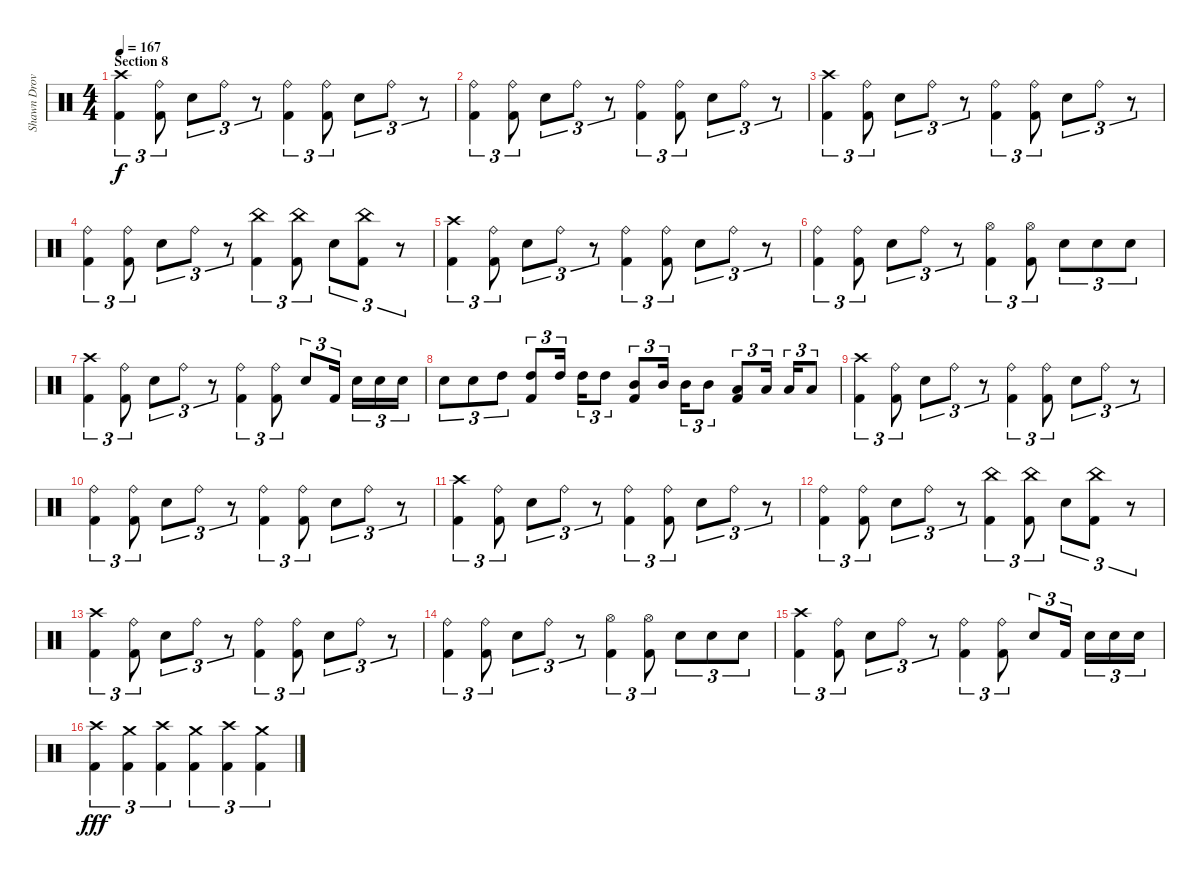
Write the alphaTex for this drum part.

\track ("Shawn Drover" "Shawn Drov") {instrument percussion}
\staff {score}
\articulation defaults
\ts (4 4)
\section ("" "Section 8")
\tempo 167
\clef neutral
\ks c
("Kick (hit) 2" "Crash high (hit)").4{tu (3 2) dy f} ("Kick (hit) 2" "Ride (bell)").8{tu (3 2)} "Snare (hit) 2".8{tu (3 2)} "Ride (bell)".8{tu (3 2)} r.8{tu (3 2)} ("Kick (hit) 2" "Ride (bell)").4{tu (3 2)} ("Kick (hit) 2" "Ride (bell)").8{tu (3 2)} "Snare (hit) 2".8{tu (3 2)} "Ride (bell)".8{tu (3 2)} r.8{tu (3 2)} |
("Kick (hit) 2" "Ride (bell)").4{tu (3 2)} ("Kick (hit) 2" "Ride (bell)").8{tu (3 2)} "Snare (hit) 2".8{tu (3 2)} "Ride (bell)".8{tu (3 2)} r.8{tu (3 2)} ("Kick (hit) 2" "Ride (bell)").4{tu (3 2)} ("Kick (hit) 2" "Ride (bell)").8{tu (3 2)} "Snare (hit) 2".8{tu (3 2)} "Ride (bell)".8{tu (3 2)} r.8{tu (3 2)} |
("Kick (hit) 2" "Crash high (hit)").4{tu (3 2)} ("Kick (hit) 2" "Ride (bell)").8{tu (3 2)} "Snare (hit) 2".8{tu (3 2)} "Ride (bell)".8{tu (3 2)} r.8{tu (3 2)} ("Kick (hit) 2" "Ride (bell)").4{tu (3 2)} ("Kick (hit) 2" "Ride (bell)").8{tu (3 2)} "Snare (hit) 2".8{tu (3 2)} "Ride (bell)".8{tu (3 2)} r.8{tu (3 2)} |
("Kick (hit) 2" "Ride (bell)").4{tu (3 2)} ("Kick (hit) 2" "Ride (bell)").8{tu (3 2)} "Snare (hit) 2".8{tu (3 2)} "Ride (bell)".8{tu (3 2)} r.8{tu (3 2)} ("Kick (hit) 2" "China (hit)").4{tu (3 2)} ("Kick (hit) 2" "China (hit)").8{tu (3 2)} "Snare (hit) 2".8{tu (3 2)} ("Kick (hit) 2" "China (hit)").8{tu (3 2)} r.8{tu (3 2)} |
("Kick (hit) 2" "Crash high (hit)").4{tu (3 2)} ("Kick (hit) 2" "Ride (bell)").8{tu (3 2)} "Snare (hit) 2".8{tu (3 2)} "Ride (bell)".8{tu (3 2)} r.8{tu (3 2)} ("Kick (hit) 2" "Ride (bell)").4{tu (3 2)} ("Kick (hit) 2" "Ride (bell)").8{tu (3 2)} "Snare (hit) 2".8{tu (3 2)} "Ride (bell)".8{tu (3 2)} r.8{tu (3 2)} |
("Kick (hit) 2" "Ride (bell)").4{tu (3 2)} ("Kick (hit) 2" "Ride (bell)").8{tu (3 2)} "Snare (hit) 2".8{tu (3 2)} "Ride (bell)".8{tu (3 2)} r.8{tu (3 2)} ("Kick (hit) 2" "Hi-Hat (open)").4{tu (3 2)} ("Kick (hit) 2" "Hi-Hat (open)").8{tu (3 2)} "Snare (hit) 2".8{tu (3 2)} "Snare (hit) 2".8{tu (3 2)} "Snare (hit) 2".8{tu (3 2)} |
("Kick (hit) 2" "Crash high (hit)").4{tu (3 2)} ("Kick (hit) 2" "Ride (bell)").8{tu (3 2)} "Snare (hit) 2".8{tu (3 2)} "Ride (bell)".8{tu (3 2)} r.8{tu (3 2)} ("Kick (hit) 2" "Ride (bell)").4{tu (3 2)} ("Kick (hit) 2" "Ride (bell)").8{tu (3 2)} "Snare (hit) 2".8{tu (3 2)} "Kick (hit) 2".16{tu (3 2) beam splitsecondary} "Snare (hit) 2".16{tu (3 2)} "Snare (hit) 2".16{tu (3 2)} "Snare (hit) 2".16{tu (3 2)} |
"Snare (hit) 2".8{tu (3 2)} "Snare (hit) 2".8{tu (3 2)} "High Tom (hit)".8{tu (3 2)} ("Kick (hit) 2" "High Tom (hit)").8{tu (3 2)} "High Tom (hit)".16{tu (3 2) beam splitsecondary} "High Tom (hit)".16{tu (3 2)} "High Tom (hit)".8{tu (3 2)} ("Kick (hit) 2" "Mid Tom (hit)").8{tu (3 2)} "Mid Tom (hit)".16{tu (3 2) beam splitsecondary} "Mid Tom (hit)".16{tu (3 2)} "Mid Tom (hit)".8{tu (3 2)} ("Kick (hit) 2" "Low Tom (hit)").8{tu (3 2)} "Low Tom (hit)".16{tu (3 2) beam splitsecondary} "Low Tom (hit)".16{tu (3 2)} "Low Tom (hit)".8{tu (3 2)} |
("Kick (hit) 2" "Crash high (hit)").4{tu (3 2)} ("Kick (hit) 2" "Ride (bell)").8{tu (3 2)} "Snare (hit) 2".8{tu (3 2)} "Ride (bell)".8{tu (3 2)} r.8{tu (3 2)} ("Kick (hit) 2" "Ride (bell)").4{tu (3 2)} ("Kick (hit) 2" "Ride (bell)").8{tu (3 2)} "Snare (hit) 2".8{tu (3 2)} "Ride (bell)".8{tu (3 2)} r.8{tu (3 2)} |
("Kick (hit) 2" "Ride (bell)").4{tu (3 2)} ("Kick (hit) 2" "Ride (bell)").8{tu (3 2)} "Snare (hit) 2".8{tu (3 2)} "Ride (bell)".8{tu (3 2)} r.8{tu (3 2)} ("Kick (hit) 2" "Ride (bell)").4{tu (3 2)} ("Kick (hit) 2" "Ride (bell)").8{tu (3 2)} "Snare (hit) 2".8{tu (3 2)} "Ride (bell)".8{tu (3 2)} r.8{tu (3 2)} |
("Kick (hit) 2" "Crash high (hit)").4{tu (3 2)} ("Kick (hit) 2" "Ride (bell)").8{tu (3 2)} "Snare (hit) 2".8{tu (3 2)} "Ride (bell)".8{tu (3 2)} r.8{tu (3 2)} ("Kick (hit) 2" "Ride (bell)").4{tu (3 2)} ("Kick (hit) 2" "Ride (bell)").8{tu (3 2)} "Snare (hit) 2".8{tu (3 2)} "Ride (bell)".8{tu (3 2)} r.8{tu (3 2)} |
("Kick (hit) 2" "Ride (bell)").4{tu (3 2)} ("Kick (hit) 2" "Ride (bell)").8{tu (3 2)} "Snare (hit) 2".8{tu (3 2)} "Ride (bell)".8{tu (3 2)} r.8{tu (3 2)} ("Kick (hit) 2" "China (hit)").4{tu (3 2)} ("Kick (hit) 2" "China (hit)").8{tu (3 2)} "Snare (hit) 2".8{tu (3 2)} ("Kick (hit) 2" "China (hit)").8{tu (3 2)} r.8{tu (3 2)} |
("Kick (hit) 2" "Crash high (hit)").4{tu (3 2)} ("Kick (hit) 2" "Ride (bell)").8{tu (3 2)} "Snare (hit) 2".8{tu (3 2)} "Ride (bell)".8{tu (3 2)} r.8{tu (3 2)} ("Kick (hit) 2" "Ride (bell)").4{tu (3 2)} ("Kick (hit) 2" "Ride (bell)").8{tu (3 2)} "Snare (hit) 2".8{tu (3 2)} "Ride (bell)".8{tu (3 2)} r.8{tu (3 2)} |
("Kick (hit) 2" "Ride (bell)").4{tu (3 2)} ("Kick (hit) 2" "Ride (bell)").8{tu (3 2)} "Snare (hit) 2".8{tu (3 2)} "Ride (bell)".8{tu (3 2)} r.8{tu (3 2)} ("Kick (hit) 2" "Hi-Hat (open)").4{tu (3 2)} ("Kick (hit) 2" "Hi-Hat (open)").8{tu (3 2)} "Snare (hit) 2".8{tu (3 2)} "Snare (hit) 2".8{tu (3 2)} "Snare (hit) 2".8{tu (3 2)} |
("Kick (hit) 2" "Crash high (hit)").4{tu (3 2)} ("Kick (hit) 2" "Ride (bell)").8{tu (3 2)} "Snare (hit) 2".8{tu (3 2)} "Ride (bell)".8{tu (3 2)} r.8{tu (3 2)} ("Kick (hit) 2" "Ride (bell)").4{tu (3 2)} ("Kick (hit) 2" "Ride (bell)").8{tu (3 2)} "Snare (hit) 2".8{tu (3 2)} "Kick (hit) 2".16{tu (3 2) beam splitsecondary} "Snare (hit) 2".16{tu (3 2)} "Snare (hit) 2".16{tu (3 2)} "Snare (hit) 2".16{tu (3 2)} |
("Kick (hit) 2" "Crash high (hit)").4{tu (3 2) dy fff} ("Kick (hit) 2" "Crash medium (hit)").4{tu (3 2)} ("Kick (hit) 2" "Crash high (hit)").4{tu (3 2)} ("Kick (hit) 2" "Crash medium (hit)").4{tu (3 2)} ("Kick (hit) 2" "Crash high (hit)").4{tu (3 2)} ("Kick (hit) 2" "Crash medium (hit)").4{tu (3 2)}
